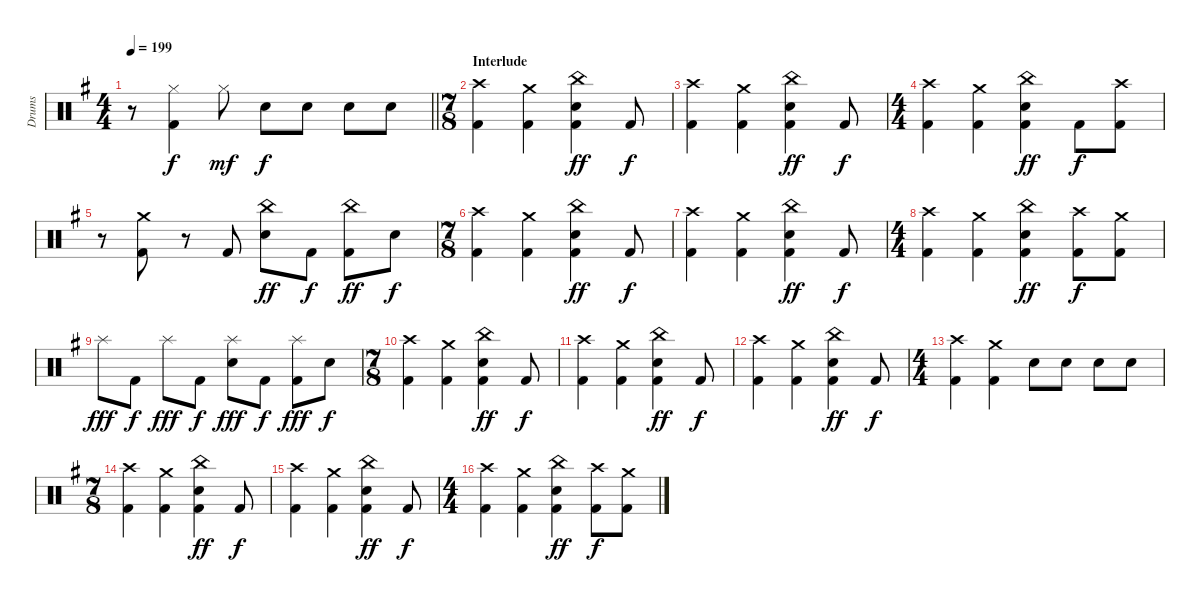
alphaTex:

\track ("Drums" "Drums") {instrument percussion}
\staff {score}
\articulation defaults
\ts (4 4)
\tempo 199
\clef neutral
\barLineRight lightlight
\ks eminor
r.8{dy mf} ("Hi-Hat (closed)" "Kick (hit) 2").4{dy f} "Hi-Hat (closed)".8{dy mf} "Electric Snare (hit)".8{dy f} "Electric Snare (hit)".8 "Electric Snare (hit)".8 "Electric Snare (hit)".8 |
\ts (7 8)
\section ("" "Interlude")
("Crash high (hit)" "Kick (hit) 2").4 ("Crash medium (hit)" "Kick (hit) 2").4 ("China (hit)" "Electric Snare (hit)" "Kick (hit) 2").4{dy ff} "Kick (hit) 2".8{dy f} |
("Crash high (hit)" "Kick (hit) 2").4 ("Crash medium (hit)" "Kick (hit) 2").4 ("China (hit)" "Electric Snare (hit)" "Kick (hit) 2").4{dy ff} "Kick (hit) 2".8{dy f} |
\ts (4 4)
("Crash high (hit)" "Kick (hit) 2").4 ("Crash medium (hit)" "Kick (hit) 2").4 ("China (hit)" "Electric Snare (hit)" "Kick (hit) 2").4{dy ff} "Kick (hit) 2".8{dy f} ("Crash high (hit)" "Kick (hit) 2").8 |
r.8 ("Crash medium (hit)" "Kick (hit) 2").8 r.8 "Kick (hit) 2".8 ("China (hit)" "Electric Snare (hit)").8{dy ff} "Kick (hit) 2".8{dy f} ("China (hit)" "Kick (hit) 2").8{dy ff} "Electric Snare (hit)".8{dy f} |
\ts (7 8)
("Crash high (hit)" "Kick (hit) 2").4 ("Crash medium (hit)" "Kick (hit) 2").4 ("China (hit)" "Electric Snare (hit)" "Kick (hit) 2").4{dy ff} "Kick (hit) 2".8{dy f} |
("Crash high (hit)" "Kick (hit) 2").4 ("Crash medium (hit)" "Kick (hit) 2").4 ("China (hit)" "Electric Snare (hit)" "Kick (hit) 2").4{dy ff} "Kick (hit) 2".8{dy f} |
\ts (4 4)
("Crash high (hit)" "Kick (hit) 2").4 ("Crash medium (hit)" "Kick (hit) 2").4 ("China (hit)" "Electric Snare (hit)" "Kick (hit) 2").4{dy ff} ("Crash high (hit)" "Kick (hit) 2").8{dy f} ("Crash medium (hit)" "Kick (hit) 2").8 |
"Splash (hit)".8{dy fff} "Kick (hit) 2".8{dy f} "Splash (hit)".8{dy fff} "Kick (hit) 2".8{dy f} ("Splash (hit)" "Electric Snare (hit)").8{dy fff} "Kick (hit) 2".8{dy f} ("Splash (hit)" "Kick (hit) 2").8{dy fff} "Electric Snare (hit)".8{dy f} |
\ts (7 8)
("Crash high (hit)" "Kick (hit) 2").4 ("Crash medium (hit)" "Kick (hit) 2").4 ("China (hit)" "Electric Snare (hit)" "Kick (hit) 2").4{dy ff} "Kick (hit) 2".8{dy f} |
("Crash high (hit)" "Kick (hit) 2").4 ("Crash medium (hit)" "Kick (hit) 2").4 ("China (hit)" "Electric Snare (hit)" "Kick (hit) 2").4{dy ff} "Kick (hit) 2".8{dy f} |
("Crash high (hit)" "Kick (hit) 2").4 ("Crash medium (hit)" "Kick (hit) 2").4 ("China (hit)" "Electric Snare (hit)" "Kick (hit) 2").4{dy ff} "Kick (hit) 2".8{dy f} |
\ts (4 4)
("Crash high (hit)" "Kick (hit) 2").4 ("Crash medium (hit)" "Kick (hit) 2").4 "Electric Snare (hit)".8 "Electric Snare (hit)".8 "Electric Snare (hit)".8 "Electric Snare (hit)".8 |
\ts (7 8)
("Crash high (hit)" "Kick (hit) 2").4 ("Crash medium (hit)" "Kick (hit) 2").4 ("China (hit)" "Electric Snare (hit)" "Kick (hit) 2").4{dy ff} "Kick (hit) 2".8{dy f} |
("Crash high (hit)" "Kick (hit) 2").4 ("Crash medium (hit)" "Kick (hit) 2").4 ("China (hit)" "Electric Snare (hit)" "Kick (hit) 2").4{dy ff} "Kick (hit) 2".8{dy f} |
\ts (4 4)
("Crash high (hit)" "Kick (hit) 2").4 ("Crash medium (hit)" "Kick (hit) 2").4 ("China (hit)" "Electric Snare (hit)" "Kick (hit) 2").4{dy ff} ("Crash high (hit)" "Kick (hit) 2").8{dy f} ("Crash medium (hit)" "Kick (hit) 2").8
